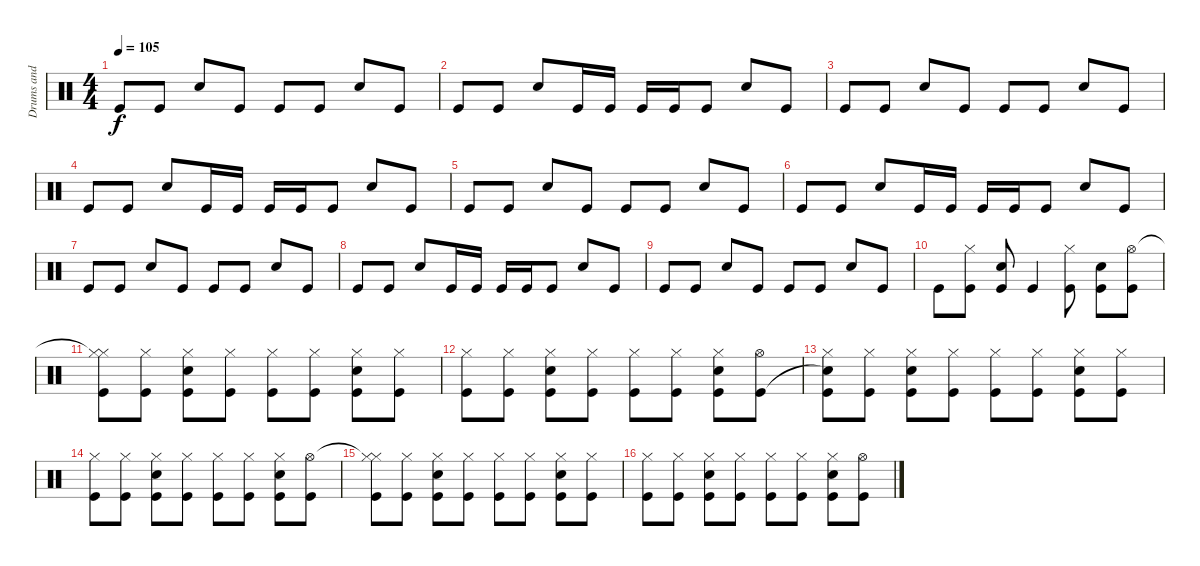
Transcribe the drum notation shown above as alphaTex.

\track ("Drums and loops" "Drums and ") {instrument percussion}
\staff {score}
\articulation defaults
\ts (4 4)
\tempo 105
\clef neutral
\ks c "Kick (hit)".8{dy f} "Kick (hit)".8 "Electric Snare (hit)".8 "Kick (hit)".8 "Kick (hit)".8 "Kick (hit)".8 "Electric Snare (hit)".8 "Kick (hit)".8
|
"Kick (hit)".8 "Kick (hit)".8 "Electric Snare (hit)".8 "Kick (hit)".16 "Kick (hit)".16 "Kick (hit)".16 "Kick (hit)".16 "Kick (hit)".8 "Electric Snare (hit)".8 "Kick (hit)".8 |
"Kick (hit)".8 "Kick (hit)".8 "Electric Snare (hit)".8 "Kick (hit)".8 "Kick (hit)".8 "Kick (hit)".8 "Electric Snare (hit)".8 "Kick (hit)".8 |
"Kick (hit)".8 "Kick (hit)".8 "Electric Snare (hit)".8 "Kick (hit)".16 "Kick (hit)".16 "Kick (hit)".16 "Kick (hit)".16 "Kick (hit)".8 "Electric Snare (hit)".8 "Kick (hit)".8 |
"Kick (hit)".8 "Kick (hit)".8 "Electric Snare (hit)".8 "Kick (hit)".8 "Kick (hit)".8 "Kick (hit)".8 "Electric Snare (hit)".8 "Kick (hit)".8 |
"Kick (hit)".8 "Kick (hit)".8 "Electric Snare (hit)".8 "Kick (hit)".16 "Kick (hit)".16 "Kick (hit)".16 "Kick (hit)".16 "Kick (hit)".8 "Electric Snare (hit)".8 "Kick (hit)".8 |
"Kick (hit)".8 "Kick (hit)".8 "Electric Snare (hit)".8 "Kick (hit)".8 "Kick (hit)".8 "Kick (hit)".8 "Electric Snare (hit)".8 "Kick (hit)".8 |
"Kick (hit)".8 "Kick (hit)".8 "Electric Snare (hit)".8 "Kick (hit)".16 "Kick (hit)".16 "Kick (hit)".16 "Kick (hit)".16 "Kick (hit)".8 "Electric Snare (hit)".8 "Kick (hit)".8 |
"Kick (hit)".8 "Kick (hit)".8 "Electric Snare (hit)".8 "Kick (hit)".8 "Kick (hit)".8 "Kick (hit)".8 "Electric Snare (hit)".8 "Kick (hit)".8 |
"Kick (hit)".8 ("Hi-Hat (closed)" "Kick (hit)").8 ("Electric Snare (hit)" "Kick (hit)").8 "Kick (hit)".4 ("Hi-Hat (closed)" "Kick (hit)").8 ("Electric Snare (hit)" "Kick (hit)").8 ("Hi-Hat (open)" "Kick (hit)").8 |
("Hi-Hat (closed)"{t} "Hi-Hat (closed)" "Kick (hit)").8 ("Hi-Hat (closed)" "Kick (hit)").8 ("Hi-Hat (closed)" "Electric Snare (hit)" "Kick (hit)").8 ("Hi-Hat (closed)" "Kick (hit)").8 ("Hi-Hat (closed)" "Kick (hit)").8 ("Hi-Hat (closed)" "Kick (hit)").8 ("Hi-Hat (closed)" "Electric Snare (hit)" "Kick (hit)").8 ("Hi-Hat (closed)" "Kick (hit)").8 |
("Hi-Hat (closed)" "Kick (hit)").8 ("Hi-Hat (closed)" "Kick (hit)").8 ("Hi-Hat (closed)" "Electric Snare (hit)" "Kick (hit)").8 ("Hi-Hat (closed)" "Kick (hit)").8 ("Hi-Hat (closed)" "Kick (hit)").8 ("Hi-Hat (closed)" "Kick (hit)").8 ("Hi-Hat (closed)" "Electric Snare (hit)" "Kick (hit)").8 ("Hi-Hat (open)" "Kick (hit)").8 |
("Hi-Hat (closed)" "Snare (hit)"{t} "Kick (hit)").8 ("Hi-Hat (closed)" "Kick (hit)").8 ("Hi-Hat (closed)" "Electric Snare (hit)" "Kick (hit)").8 ("Hi-Hat (closed)" "Kick (hit)").8 ("Hi-Hat (closed)" "Kick (hit)").8 ("Hi-Hat (closed)" "Kick (hit)").8 ("Hi-Hat (closed)" "Electric Snare (hit)" "Kick (hit)").8 ("Hi-Hat (closed)" "Kick (hit)").8 |
("Hi-Hat (closed)" "Kick (hit)").8 ("Hi-Hat (closed)" "Kick (hit)").8 ("Hi-Hat (closed)" "Electric Snare (hit)" "Kick (hit)").8 ("Hi-Hat (closed)" "Kick (hit)").8 ("Hi-Hat (closed)" "Kick (hit)").8 ("Hi-Hat (closed)" "Kick (hit)").8 ("Hi-Hat (closed)" "Electric Snare (hit)" "Kick (hit)").8 ("Hi-Hat (open)" "Kick (hit)").8 |
("Hi-Hat (closed)"{t} "Hi-Hat (closed)" "Kick (hit)").8 ("Hi-Hat (closed)" "Kick (hit)").8 ("Hi-Hat (closed)" "Electric Snare (hit)" "Kick (hit)").8 ("Hi-Hat (closed)" "Kick (hit)").8 ("Hi-Hat (closed)" "Kick (hit)").8 ("Hi-Hat (closed)" "Kick (hit)").8 ("Hi-Hat (closed)" "Electric Snare (hit)" "Kick (hit)").8 ("Hi-Hat (closed)" "Kick (hit)").8 |
("Hi-Hat (closed)" "Kick (hit)").8 ("Hi-Hat (closed)" "Kick (hit)").8 ("Hi-Hat (closed)" "Electric Snare (hit)" "Kick (hit)").8 ("Hi-Hat (closed)" "Kick (hit)").8 ("Hi-Hat (closed)" "Kick (hit)").8 ("Hi-Hat (closed)" "Kick (hit)").8 ("Hi-Hat (closed)" "Electric Snare (hit)" "Kick (hit)").8 ("Hi-Hat (open)" "Kick (hit)").8
